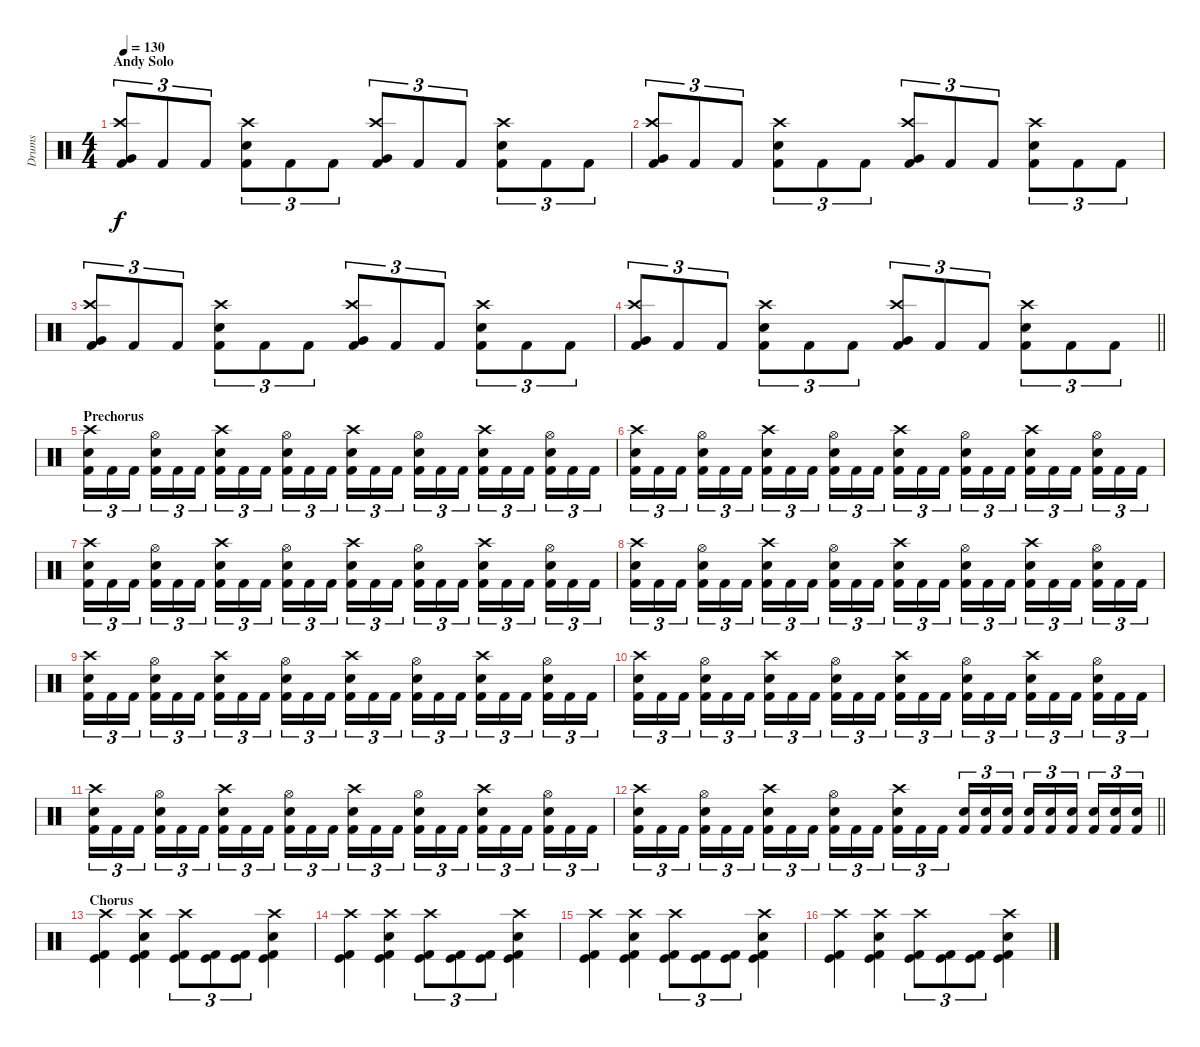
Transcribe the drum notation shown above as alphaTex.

\track ("Drums" "Drums") {instrument percussion}
\staff {score}
\articulation defaults
\ts (4 4)
\section ("" "Andy Solo")
\tempo 130
\clef neutral
\ks c
("Very Low Tom (hit)" "Crash high (hit)" "Kick (hit) 2").8{tu (3 2) dy f} "Kick (hit) 2".8{tu (3 2)} "Kick (hit) 2".8{tu (3 2)} ("Snare (hit) 2" "Crash high (hit)" "Kick (hit) 2").8{tu (3 2)} "Kick (hit) 2".8{tu (3 2)} "Kick (hit) 2".8{tu (3 2)} ("Very Low Tom (hit)" "Crash high (hit)" "Kick (hit) 2").8{tu (3 2)} "Kick (hit) 2".8{tu (3 2)} "Kick (hit) 2".8{tu (3 2)} ("Snare (hit) 2" "Crash high (hit)" "Kick (hit) 2").8{tu (3 2)} "Kick (hit) 2".8{tu (3 2)} "Kick (hit) 2".8{tu (3 2)} |
("Very Low Tom (hit)" "Crash high (hit)" "Kick (hit) 2").8{tu (3 2)} "Kick (hit) 2".8{tu (3 2)} "Kick (hit) 2".8{tu (3 2)} ("Snare (hit) 2" "Crash high (hit)" "Kick (hit) 2").8{tu (3 2)} "Kick (hit) 2".8{tu (3 2)} "Kick (hit) 2".8{tu (3 2)} ("Very Low Tom (hit)" "Crash high (hit)" "Kick (hit) 2").8{tu (3 2)} "Kick (hit) 2".8{tu (3 2)} "Kick (hit) 2".8{tu (3 2)} ("Snare (hit) 2" "Crash high (hit)" "Kick (hit) 2").8{tu (3 2)} "Kick (hit) 2".8{tu (3 2)} "Kick (hit) 2".8{tu (3 2)} |
("Very Low Tom (hit)" "Crash high (hit)" "Kick (hit) 2").8{tu (3 2)} "Kick (hit) 2".8{tu (3 2)} "Kick (hit) 2".8{tu (3 2)} ("Snare (hit) 2" "Crash high (hit)" "Kick (hit) 2").8{tu (3 2)} "Kick (hit) 2".8{tu (3 2)} "Kick (hit) 2".8{tu (3 2)} ("Very Low Tom (hit)" "Crash high (hit)" "Kick (hit) 2").8{tu (3 2)} "Kick (hit) 2".8{tu (3 2)} "Kick (hit) 2".8{tu (3 2)} ("Snare (hit) 2" "Crash high (hit)" "Kick (hit) 2").8{tu (3 2)} "Kick (hit) 2".8{tu (3 2)} "Kick (hit) 2".8{tu (3 2)} |
\barLineRight lightlight
("Very Low Tom (hit)" "Crash high (hit)" "Kick (hit) 2").8{tu (3 2)} "Kick (hit) 2".8{tu (3 2)} "Kick (hit) 2".8{tu (3 2)} ("Snare (hit) 2" "Crash high (hit)" "Kick (hit) 2").8{tu (3 2)} "Kick (hit) 2".8{tu (3 2)} "Kick (hit) 2".8{tu (3 2)} ("Very Low Tom (hit)" "Crash high (hit)" "Kick (hit) 2").8{tu (3 2)} "Kick (hit) 2".8{tu (3 2)} "Kick (hit) 2".8{tu (3 2)} ("Snare (hit) 2" "Crash high (hit)" "Kick (hit) 2").8{tu (3 2)} "Kick (hit) 2".8{tu (3 2)} "Kick (hit) 2".8{tu (3 2)} |
\section ("" "Prechorus")
("Kick (hit) 2" "Snare (hit) 2" "Crash high (hit)").16{tu (3 2)} "Kick (hit) 2".16{tu (3 2)} "Kick (hit) 2".16{tu (3 2) beam splitsecondary} ("Kick (hit) 2" "Snare (hit) 2" "Hi-Hat (open)").16{tu (3 2)} "Kick (hit) 2".16{tu (3 2)} "Kick (hit) 2".16{tu (3 2)} ("Kick (hit) 2" "Snare (hit) 2" "Crash high (hit)").16{tu (3 2)} "Kick (hit) 2".16{tu (3 2)} "Kick (hit) 2".16{tu (3 2) beam splitsecondary} ("Kick (hit) 2" "Snare (hit) 2" "Hi-Hat (open)").16{tu (3 2)} "Kick (hit) 2".16{tu (3 2)} "Kick (hit) 2".16{tu (3 2)} ("Kick (hit) 2" "Snare (hit) 2" "Crash high (hit)").16{tu (3 2)} "Kick (hit) 2".16{tu (3 2)} "Kick (hit) 2".16{tu (3 2) beam splitsecondary} ("Kick (hit) 2" "Snare (hit) 2" "Hi-Hat (open)").16{tu (3 2)} "Kick (hit) 2".16{tu (3 2)} "Kick (hit) 2".16{tu (3 2)} ("Kick (hit) 2" "Snare (hit) 2" "Crash high (hit)").16{tu (3 2)} "Kick (hit) 2".16{tu (3 2)} "Kick (hit) 2".16{tu (3 2) beam splitsecondary} ("Kick (hit) 2" "Snare (hit) 2" "Hi-Hat (open)").16{tu (3 2)} "Kick (hit) 2".16{tu (3 2)} "Kick (hit) 2".16{tu (3 2)} |
("Kick (hit) 2" "Snare (hit) 2" "Crash high (hit)").16{tu (3 2)} "Kick (hit) 2".16{tu (3 2)} "Kick (hit) 2".16{tu (3 2) beam splitsecondary} ("Kick (hit) 2" "Snare (hit) 2" "Hi-Hat (open)").16{tu (3 2)} "Kick (hit) 2".16{tu (3 2)} "Kick (hit) 2".16{tu (3 2)} ("Kick (hit) 2" "Snare (hit) 2" "Crash high (hit)").16{tu (3 2)} "Kick (hit) 2".16{tu (3 2)} "Kick (hit) 2".16{tu (3 2) beam splitsecondary} ("Kick (hit) 2" "Snare (hit) 2" "Hi-Hat (open)").16{tu (3 2)} "Kick (hit) 2".16{tu (3 2)} "Kick (hit) 2".16{tu (3 2)} ("Kick (hit) 2" "Snare (hit) 2" "Crash high (hit)").16{tu (3 2)} "Kick (hit) 2".16{tu (3 2)} "Kick (hit) 2".16{tu (3 2) beam splitsecondary} ("Kick (hit) 2" "Snare (hit) 2" "Hi-Hat (open)").16{tu (3 2)} "Kick (hit) 2".16{tu (3 2)} "Kick (hit) 2".16{tu (3 2)} ("Kick (hit) 2" "Snare (hit) 2" "Crash high (hit)").16{tu (3 2)} "Kick (hit) 2".16{tu (3 2)} "Kick (hit) 2".16{tu (3 2) beam splitsecondary} ("Kick (hit) 2" "Snare (hit) 2" "Hi-Hat (open)").16{tu (3 2)} "Kick (hit) 2".16{tu (3 2)} "Kick (hit) 2".16{tu (3 2)} |
("Kick (hit) 2" "Snare (hit) 2" "Crash high (hit)").16{tu (3 2)} "Kick (hit) 2".16{tu (3 2)} "Kick (hit) 2".16{tu (3 2) beam splitsecondary} ("Kick (hit) 2" "Snare (hit) 2" "Hi-Hat (open)").16{tu (3 2)} "Kick (hit) 2".16{tu (3 2)} "Kick (hit) 2".16{tu (3 2)} ("Kick (hit) 2" "Snare (hit) 2" "Crash high (hit)").16{tu (3 2)} "Kick (hit) 2".16{tu (3 2)} "Kick (hit) 2".16{tu (3 2) beam splitsecondary} ("Kick (hit) 2" "Snare (hit) 2" "Hi-Hat (open)").16{tu (3 2)} "Kick (hit) 2".16{tu (3 2)} "Kick (hit) 2".16{tu (3 2)} ("Kick (hit) 2" "Snare (hit) 2" "Crash high (hit)").16{tu (3 2)} "Kick (hit) 2".16{tu (3 2)} "Kick (hit) 2".16{tu (3 2) beam splitsecondary} ("Kick (hit) 2" "Snare (hit) 2" "Hi-Hat (open)").16{tu (3 2)} "Kick (hit) 2".16{tu (3 2)} "Kick (hit) 2".16{tu (3 2)} ("Kick (hit) 2" "Snare (hit) 2" "Crash high (hit)").16{tu (3 2)} "Kick (hit) 2".16{tu (3 2)} "Kick (hit) 2".16{tu (3 2) beam splitsecondary} ("Kick (hit) 2" "Snare (hit) 2" "Hi-Hat (open)").16{tu (3 2)} "Kick (hit) 2".16{tu (3 2)} "Kick (hit) 2".16{tu (3 2)} |
("Kick (hit) 2" "Snare (hit) 2" "Crash high (hit)").16{tu (3 2)} "Kick (hit) 2".16{tu (3 2)} "Kick (hit) 2".16{tu (3 2) beam splitsecondary} ("Kick (hit) 2" "Snare (hit) 2" "Hi-Hat (open)").16{tu (3 2)} "Kick (hit) 2".16{tu (3 2)} "Kick (hit) 2".16{tu (3 2)} ("Kick (hit) 2" "Snare (hit) 2" "Crash high (hit)").16{tu (3 2)} "Kick (hit) 2".16{tu (3 2)} "Kick (hit) 2".16{tu (3 2) beam splitsecondary} ("Kick (hit) 2" "Snare (hit) 2" "Hi-Hat (open)").16{tu (3 2)} "Kick (hit) 2".16{tu (3 2)} "Kick (hit) 2".16{tu (3 2)} ("Kick (hit) 2" "Snare (hit) 2" "Crash high (hit)").16{tu (3 2)} "Kick (hit) 2".16{tu (3 2)} "Kick (hit) 2".16{tu (3 2) beam splitsecondary} ("Kick (hit) 2" "Snare (hit) 2" "Hi-Hat (open)").16{tu (3 2)} "Kick (hit) 2".16{tu (3 2)} "Kick (hit) 2".16{tu (3 2)} ("Kick (hit) 2" "Snare (hit) 2" "Crash high (hit)").16{tu (3 2)} "Kick (hit) 2".16{tu (3 2)} "Kick (hit) 2".16{tu (3 2) beam splitsecondary} ("Kick (hit) 2" "Snare (hit) 2" "Hi-Hat (open)").16{tu (3 2)} "Kick (hit) 2".16{tu (3 2)} "Kick (hit) 2".16{tu (3 2)} |
("Kick (hit) 2" "Snare (hit) 2" "Crash high (hit)").16{tu (3 2)} "Kick (hit) 2".16{tu (3 2)} "Kick (hit) 2".16{tu (3 2) beam splitsecondary} ("Kick (hit) 2" "Snare (hit) 2" "Hi-Hat (open)").16{tu (3 2)} "Kick (hit) 2".16{tu (3 2)} "Kick (hit) 2".16{tu (3 2)} ("Kick (hit) 2" "Snare (hit) 2" "Crash high (hit)").16{tu (3 2)} "Kick (hit) 2".16{tu (3 2)} "Kick (hit) 2".16{tu (3 2) beam splitsecondary} ("Kick (hit) 2" "Snare (hit) 2" "Hi-Hat (open)").16{tu (3 2)} "Kick (hit) 2".16{tu (3 2)} "Kick (hit) 2".16{tu (3 2)} ("Kick (hit) 2" "Snare (hit) 2" "Crash high (hit)").16{tu (3 2)} "Kick (hit) 2".16{tu (3 2)} "Kick (hit) 2".16{tu (3 2) beam splitsecondary} ("Kick (hit) 2" "Snare (hit) 2" "Hi-Hat (open)").16{tu (3 2)} "Kick (hit) 2".16{tu (3 2)} "Kick (hit) 2".16{tu (3 2)} ("Kick (hit) 2" "Snare (hit) 2" "Crash high (hit)").16{tu (3 2)} "Kick (hit) 2".16{tu (3 2)} "Kick (hit) 2".16{tu (3 2) beam splitsecondary} ("Kick (hit) 2" "Snare (hit) 2" "Hi-Hat (open)").16{tu (3 2)} "Kick (hit) 2".16{tu (3 2)} "Kick (hit) 2".16{tu (3 2)} |
("Kick (hit) 2" "Snare (hit) 2" "Crash high (hit)").16{tu (3 2)} "Kick (hit) 2".16{tu (3 2)} "Kick (hit) 2".16{tu (3 2) beam splitsecondary} ("Kick (hit) 2" "Snare (hit) 2" "Hi-Hat (open)").16{tu (3 2)} "Kick (hit) 2".16{tu (3 2)} "Kick (hit) 2".16{tu (3 2)} ("Kick (hit) 2" "Snare (hit) 2" "Crash high (hit)").16{tu (3 2)} "Kick (hit) 2".16{tu (3 2)} "Kick (hit) 2".16{tu (3 2) beam splitsecondary} ("Kick (hit) 2" "Snare (hit) 2" "Hi-Hat (open)").16{tu (3 2)} "Kick (hit) 2".16{tu (3 2)} "Kick (hit) 2".16{tu (3 2)} ("Kick (hit) 2" "Snare (hit) 2" "Crash high (hit)").16{tu (3 2)} "Kick (hit) 2".16{tu (3 2)} "Kick (hit) 2".16{tu (3 2) beam splitsecondary} ("Kick (hit) 2" "Snare (hit) 2" "Hi-Hat (open)").16{tu (3 2)} "Kick (hit) 2".16{tu (3 2)} "Kick (hit) 2".16{tu (3 2)} ("Kick (hit) 2" "Snare (hit) 2" "Crash high (hit)").16{tu (3 2)} "Kick (hit) 2".16{tu (3 2)} "Kick (hit) 2".16{tu (3 2) beam splitsecondary} ("Kick (hit) 2" "Snare (hit) 2" "Hi-Hat (open)").16{tu (3 2)} "Kick (hit) 2".16{tu (3 2)} "Kick (hit) 2".16{tu (3 2)} |
("Kick (hit) 2" "Snare (hit) 2" "Crash high (hit)").16{tu (3 2)} "Kick (hit) 2".16{tu (3 2)} "Kick (hit) 2".16{tu (3 2) beam splitsecondary} ("Kick (hit) 2" "Snare (hit) 2" "Hi-Hat (open)").16{tu (3 2)} "Kick (hit) 2".16{tu (3 2)} "Kick (hit) 2".16{tu (3 2)} ("Kick (hit) 2" "Snare (hit) 2" "Crash high (hit)").16{tu (3 2)} "Kick (hit) 2".16{tu (3 2)} "Kick (hit) 2".16{tu (3 2) beam splitsecondary} ("Kick (hit) 2" "Snare (hit) 2" "Hi-Hat (open)").16{tu (3 2)} "Kick (hit) 2".16{tu (3 2)} "Kick (hit) 2".16{tu (3 2)} ("Kick (hit) 2" "Snare (hit) 2" "Crash high (hit)").16{tu (3 2)} "Kick (hit) 2".16{tu (3 2)} "Kick (hit) 2".16{tu (3 2) beam splitsecondary} ("Kick (hit) 2" "Snare (hit) 2" "Hi-Hat (open)").16{tu (3 2)} "Kick (hit) 2".16{tu (3 2)} "Kick (hit) 2".16{tu (3 2)} ("Kick (hit) 2" "Snare (hit) 2" "Crash high (hit)").16{tu (3 2)} "Kick (hit) 2".16{tu (3 2)} "Kick (hit) 2".16{tu (3 2) beam splitsecondary} ("Kick (hit) 2" "Snare (hit) 2" "Hi-Hat (open)").16{tu (3 2)} "Kick (hit) 2".16{tu (3 2)} "Kick (hit) 2".16{tu (3 2)} |
\barLineRight lightlight
("Kick (hit) 2" "Snare (hit) 2" "Crash high (hit)").16{tu (3 2)} "Kick (hit) 2".16{tu (3 2)} "Kick (hit) 2".16{tu (3 2) beam splitsecondary} ("Kick (hit) 2" "Snare (hit) 2" "Hi-Hat (open)").16{tu (3 2)} "Kick (hit) 2".16{tu (3 2)} "Kick (hit) 2".16{tu (3 2)} ("Kick (hit) 2" "Snare (hit) 2" "Crash high (hit)").16{tu (3 2)} "Kick (hit) 2".16{tu (3 2)} "Kick (hit) 2".16{tu (3 2) beam splitsecondary} ("Kick (hit) 2" "Snare (hit) 2" "Hi-Hat (open)").16{tu (3 2)} "Kick (hit) 2".16{tu (3 2)} "Kick (hit) 2".16{tu (3 2)} ("Kick (hit) 2" "Snare (hit) 2" "Crash high (hit)").16{tu (3 2)} "Kick (hit) 2".16{tu (3 2)} "Kick (hit) 2".16{tu (3 2) beam splitsecondary} ("Kick (hit) 2" "Snare (hit) 2").16{tu (3 2)} ("Kick (hit) 2" "Snare (hit) 2").16{tu (3 2)} ("Kick (hit) 2" "Snare (hit) 2").16{tu (3 2)} ("Kick (hit) 2" "Snare (hit) 2").16{tu (3 2)} ("Kick (hit) 2" "Snare (hit) 2").16{tu (3 2)} ("Kick (hit) 2" "Snare (hit) 2").16{tu (3 2) beam splitsecondary} ("Kick (hit) 2" "Snare (hit) 2").16{tu (3 2)} ("Kick (hit) 2" "Snare (hit) 2").16{tu (3 2)} ("Kick (hit) 2" "Snare (hit) 2").16{tu (3 2)} |
\section ("" "Chorus")
("Crash high (hit)" "Kick (hit)" "Kick (hit) 2").4 ("Crash high (hit)" "Electric Snare (hit)" "Kick (hit)" "Kick (hit) 2").4 ("Crash high (hit)" "Kick (hit)" "Kick (hit) 2").8{tu (3 2)} ("Kick (hit)" "Kick (hit) 2").8{tu (3 2)} ("Kick (hit)" "Kick (hit) 2").8{tu (3 2)} ("Crash high (hit)" "Electric Snare (hit)" "Kick (hit)" "Kick (hit) 2").4 |
("Crash high (hit)" "Kick (hit)" "Kick (hit) 2").4 ("Crash high (hit)" "Electric Snare (hit)" "Kick (hit)" "Kick (hit) 2").4 ("Crash high (hit)" "Kick (hit)" "Kick (hit) 2").8{tu (3 2)} ("Kick (hit)" "Kick (hit) 2").8{tu (3 2)} ("Kick (hit)" "Kick (hit) 2").8{tu (3 2)} ("Crash high (hit)" "Electric Snare (hit)" "Kick (hit)" "Kick (hit) 2").4 |
("Crash high (hit)" "Kick (hit)" "Kick (hit) 2").4 ("Crash high (hit)" "Electric Snare (hit)" "Kick (hit)" "Kick (hit) 2").4 ("Crash high (hit)" "Kick (hit)" "Kick (hit) 2").8{tu (3 2)} ("Kick (hit)" "Kick (hit) 2").8{tu (3 2)} ("Kick (hit)" "Kick (hit) 2").8{tu (3 2)} ("Crash high (hit)" "Electric Snare (hit)" "Kick (hit)" "Kick (hit) 2").4 |
("Crash high (hit)" "Kick (hit)" "Kick (hit) 2").4 ("Crash high (hit)" "Electric Snare (hit)" "Kick (hit)" "Kick (hit) 2").4 ("Crash high (hit)" "Kick (hit)" "Kick (hit) 2").8{tu (3 2)} ("Kick (hit)" "Kick (hit) 2").8{tu (3 2)} ("Kick (hit)" "Kick (hit) 2").8{tu (3 2)} ("Crash high (hit)" "Electric Snare (hit)" "Kick (hit)" "Kick (hit) 2").4
